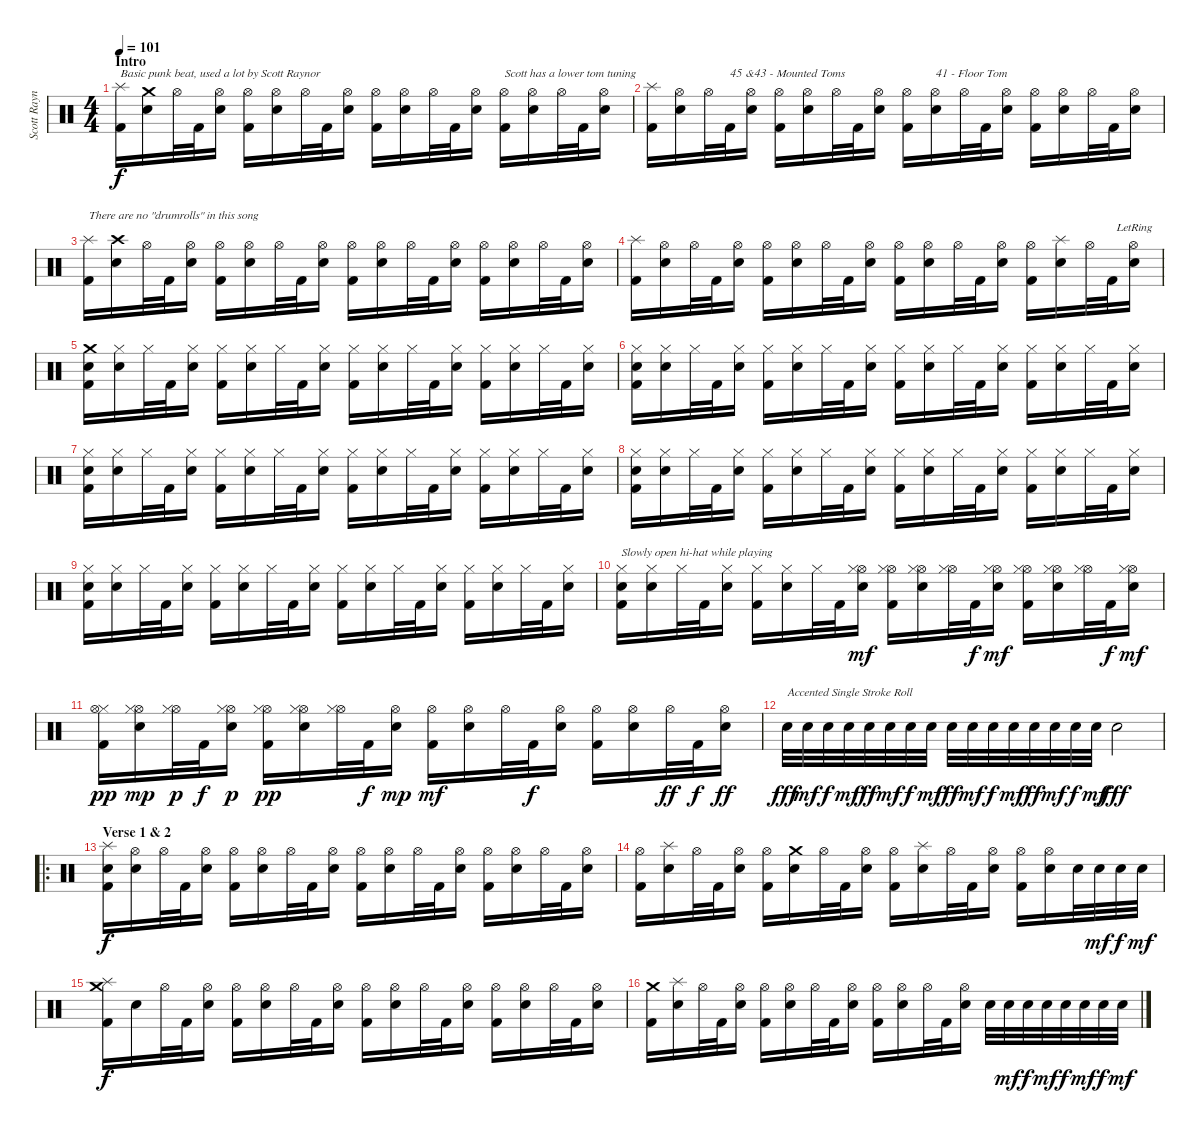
\track ("Scott Raynor" "Scott Rayn") {instrument percussion}
\staff {score}
\articulation defaults
\ts (4 4)
\section ("" "Intro")
\tempo 101
\clef neutral
\ks c
("Splash (hit)" "Kick (hit) 2").16{txt "Basic punk beat, used a lot by Scott Raynor" dy f} ("Crash medium (hit)" "Electric Snare (hit)").16 "Hi-Hat (open)".32 "Kick (hit) 2".32 ("Hi-Hat (open)" "Electric Snare (hit)").16 ("Hi-Hat (open)" "Kick (hit) 2").16 ("Hi-Hat (open)" "Electric Snare (hit)").16 "Hi-Hat (open)".32 "Kick (hit) 2".32 ("Hi-Hat (open)" "Electric Snare (hit)").16 ("Hi-Hat (open)" "Kick (hit) 2").16 ("Hi-Hat (open)" "Electric Snare (hit)").16 "Hi-Hat (open)".32 "Kick (hit) 2".32 ("Hi-Hat (open)" "Electric Snare (hit)").16 ("Hi-Hat (open)" "Kick (hit) 2").16{txt "Scott has a lower tom tuning"} ("Hi-Hat (open)" "Electric Snare (hit)").16 "Hi-Hat (open)".32 "Kick (hit) 2".32 ("Hi-Hat (open)" "Electric Snare (hit)").16 |
("Splash (hit)" "Kick (hit) 2").16 ("Hi-Hat (open)" "Electric Snare (hit)").16 "Hi-Hat (open)".32 "Kick (hit) 2".32{txt "45 &43 - Mounted Toms"} ("Hi-Hat (open)" "Electric Snare (hit)").16 ("Hi-Hat (open)" "Kick (hit) 2").16 ("Hi-Hat (open)" "Electric Snare (hit)").16 "Hi-Hat (open)".32 "Kick (hit) 2".32 ("Hi-Hat (open)" "Electric Snare (hit)").16 ("Hi-Hat (open)" "Kick (hit) 2").16 ("Hi-Hat (open)" "Electric Snare (hit)").16{txt "41 - Floor Tom"} "Hi-Hat (open)".32 "Kick (hit) 2".32 ("Hi-Hat (open)" "Electric Snare (hit)").16 ("Hi-Hat (open)" "Kick (hit) 2").16 ("Hi-Hat (open)" "Electric Snare (hit)").16 "Hi-Hat (open)".32 "Kick (hit) 2".32 ("Hi-Hat (open)" "Electric Snare (hit)").16 |
("Splash (hit)" "Kick (hit) 2").16{txt "There are no \"drumrolls\" in this song"} ("Crash high (hit)" "Electric Snare (hit)").16 "Hi-Hat (open)".32 "Kick (hit) 2".32 ("Hi-Hat (open)" "Electric Snare (hit)").16 ("Hi-Hat (open)" "Kick (hit) 2").16 ("Hi-Hat (open)" "Electric Snare (hit)").16 "Hi-Hat (open)".32 "Kick (hit) 2".32 ("Hi-Hat (open)" "Electric Snare (hit)").16 ("Hi-Hat (open)" "Kick (hit) 2").16 ("Hi-Hat (open)" "Electric Snare (hit)").16 "Hi-Hat (open)".32 "Kick (hit) 2".32 ("Hi-Hat (open)" "Electric Snare (hit)").16 ("Hi-Hat (open)" "Kick (hit) 2").16 ("Hi-Hat (open)" "Electric Snare (hit)").16 "Hi-Hat (open)".32 "Kick (hit) 2".32 ("Hi-Hat (open)" "Electric Snare (hit)").16 |
("Splash (hit)" "Kick (hit) 2").16 ("Hi-Hat (open)" "Electric Snare (hit)").16 "Hi-Hat (open)".32 "Kick (hit) 2".32 ("Hi-Hat (open)" "Electric Snare (hit)").16 ("Hi-Hat (open)" "Kick (hit) 2").16 ("Hi-Hat (open)" "Electric Snare (hit)").16 "Hi-Hat (open)".32 "Kick (hit) 2".32 ("Hi-Hat (open)" "Electric Snare (hit)").16 ("Hi-Hat (open)" "Kick (hit) 2").16 ("Hi-Hat (open)" "Electric Snare (hit)").16 "Hi-Hat (open)".32 "Kick (hit) 2".32 ("Hi-Hat (open)" "Electric Snare (hit)").16 ("Hi-Hat (open)" "Kick (hit) 2").16 ("Splash (hit)" "Electric Snare (hit)").16 "Hi-Hat (open)".32 "Kick (hit) 2".32 ("Hi-Hat (open)"{lr} "Electric Snare (hit)").16 |
("Crash medium (hit)" "Snare (hit)" "Kick (hit) 2").16 ("Hi-Hat (closed)" "Electric Snare (hit)").16 "Hi-Hat (closed)".32 "Kick (hit) 2".32 ("Hi-Hat (closed)" "Electric Snare (hit)").16 ("Hi-Hat (closed)" "Kick (hit) 2").16 ("Hi-Hat (closed)" "Electric Snare (hit)").16 "Hi-Hat (closed)".32 "Kick (hit) 2".32 ("Hi-Hat (closed)" "Electric Snare (hit)").16 ("Hi-Hat (closed)" "Kick (hit) 2").16 ("Hi-Hat (closed)" "Electric Snare (hit)").16 "Hi-Hat (closed)".32 "Kick (hit) 2".32 ("Hi-Hat (closed)" "Electric Snare (hit)").16 ("Hi-Hat (closed)" "Kick (hit) 2").16 ("Hi-Hat (closed)" "Electric Snare (hit)").16 "Hi-Hat (closed)".32 "Kick (hit) 2".32 ("Hi-Hat (closed)" "Electric Snare (hit)").16 |
("Hi-Hat (closed)" "Snare (hit)" "Kick (hit) 2").16 ("Hi-Hat (closed)" "Electric Snare (hit)").16 "Hi-Hat (closed)".32 "Kick (hit) 2".32 ("Hi-Hat (closed)" "Electric Snare (hit)").16 ("Hi-Hat (closed)" "Kick (hit) 2").16 ("Hi-Hat (closed)" "Electric Snare (hit)").16 "Hi-Hat (closed)".32 "Kick (hit) 2".32 ("Hi-Hat (closed)" "Electric Snare (hit)").16 ("Hi-Hat (closed)" "Kick (hit) 2").16 ("Hi-Hat (closed)" "Electric Snare (hit)").16 "Hi-Hat (closed)".32 "Kick (hit) 2".32 ("Hi-Hat (closed)" "Electric Snare (hit)").16 ("Hi-Hat (closed)" "Kick (hit) 2").16 ("Hi-Hat (closed)" "Electric Snare (hit)").16 "Hi-Hat (closed)".32 "Kick (hit) 2".32 ("Hi-Hat (closed)" "Electric Snare (hit)").16 |
("Hi-Hat (closed)" "Snare (hit)" "Kick (hit) 2").16 ("Hi-Hat (closed)" "Electric Snare (hit)").16 "Hi-Hat (closed)".32 "Kick (hit) 2".32 ("Hi-Hat (closed)" "Electric Snare (hit)").16 ("Hi-Hat (closed)" "Kick (hit) 2").16 ("Hi-Hat (closed)" "Electric Snare (hit)").16 "Hi-Hat (closed)".32 "Kick (hit) 2".32 ("Hi-Hat (closed)" "Electric Snare (hit)").16 ("Hi-Hat (closed)" "Kick (hit) 2").16 ("Hi-Hat (closed)" "Electric Snare (hit)").16 "Hi-Hat (closed)".32 "Kick (hit) 2".32 ("Hi-Hat (closed)" "Electric Snare (hit)").16 ("Hi-Hat (closed)" "Kick (hit) 2").16 ("Hi-Hat (closed)" "Electric Snare (hit)").16 "Hi-Hat (closed)".32 "Kick (hit) 2".32 ("Hi-Hat (closed)" "Electric Snare (hit)").16 |
("Hi-Hat (closed)" "Snare (hit)" "Kick (hit) 2").16 ("Hi-Hat (closed)" "Electric Snare (hit)").16 "Hi-Hat (closed)".32 "Kick (hit) 2".32 ("Hi-Hat (closed)" "Electric Snare (hit)").16 ("Hi-Hat (closed)" "Kick (hit) 2").16 ("Hi-Hat (closed)" "Electric Snare (hit)").16 "Hi-Hat (closed)".32 "Kick (hit) 2".32 ("Hi-Hat (closed)" "Electric Snare (hit)").16 ("Hi-Hat (closed)" "Kick (hit) 2").16 ("Hi-Hat (closed)" "Electric Snare (hit)").16 "Hi-Hat (closed)".32 "Kick (hit) 2".32 ("Hi-Hat (closed)" "Electric Snare (hit)").16 ("Hi-Hat (closed)" "Kick (hit) 2").16 ("Hi-Hat (closed)" "Electric Snare (hit)").16 "Hi-Hat (closed)".32 "Kick (hit) 2".32 ("Hi-Hat (closed)" "Electric Snare (hit)").16 |
("Hi-Hat (closed)" "Snare (hit)" "Kick (hit) 2").16 ("Hi-Hat (closed)" "Electric Snare (hit)").16 "Hi-Hat (closed)".32 "Kick (hit) 2".32 ("Hi-Hat (closed)" "Electric Snare (hit)").16 ("Hi-Hat (closed)" "Kick (hit) 2").16 ("Hi-Hat (closed)" "Electric Snare (hit)").16 "Hi-Hat (closed)".32 "Kick (hit) 2".32 ("Hi-Hat (closed)" "Electric Snare (hit)").16 ("Hi-Hat (closed)" "Kick (hit) 2").16 ("Hi-Hat (closed)" "Electric Snare (hit)").16 "Hi-Hat (closed)".32 "Kick (hit) 2".32 ("Hi-Hat (closed)" "Electric Snare (hit)").16 ("Hi-Hat (closed)" "Kick (hit) 2").16 ("Hi-Hat (closed)" "Electric Snare (hit)").16 "Hi-Hat (closed)".32 "Kick (hit) 2".32 ("Hi-Hat (closed)" "Electric Snare (hit)").16 |
("Hi-Hat (closed)" "Snare (hit)" "Kick (hit) 2").16{txt "Slowly open hi-hat while playing"} ("Hi-Hat (closed)" "Electric Snare (hit)").16 "Hi-Hat (closed)".32 "Kick (hit) 2".32 ("Hi-Hat (closed)" "Electric Snare (hit)").16 ("Hi-Hat (closed)" "Kick (hit) 2").16 ("Hi-Hat (closed)" "Electric Snare (hit)").16 "Hi-Hat (closed)".32 "Kick (hit) 2".32 ("Hi-Hat (open)" "Hi-Hat (closed)" "Electric Snare (hit)").16{dy mf} ("Hi-Hat (open)" "Hi-Hat (closed)" "Kick (hit) 2").16 ("Hi-Hat (open)" "Hi-Hat (closed)" "Electric Snare (hit)").16 ("Hi-Hat (open)" "Hi-Hat (closed)").32 "Kick (hit) 2".32{dy f} ("Hi-Hat (open)" "Hi-Hat (closed)" "Electric Snare (hit)").16{dy mf} ("Hi-Hat (open)" "Hi-Hat (closed)" "Kick (hit) 2").16 ("Hi-Hat (open)" "Hi-Hat (closed)" "Electric Snare (hit)").16 ("Hi-Hat (open)" "Hi-Hat (closed)").32 "Kick (hit) 2".32{dy f} ("Hi-Hat (open)" "Hi-Hat (closed)" "Electric Snare (hit)").16{dy mf} |
("Hi-Hat (closed)" "Hi-Hat (open)" "Kick (hit) 2").16{dy pp} ("Hi-Hat (open)" "Hi-Hat (closed)" "Electric Snare (hit)").16{dy mp} ("Hi-Hat (open)" "Hi-Hat (closed)").32{dy p} "Kick (hit) 2".32{dy f} ("Hi-Hat (open)" "Hi-Hat (closed)" "Electric Snare (hit)").16{dy p} ("Hi-Hat (open)" "Hi-Hat (closed)" "Kick (hit) 2").16{dy pp} ("Hi-Hat (open)" "Hi-Hat (closed)" "Electric Snare (hit)").16 ("Hi-Hat (open)" "Hi-Hat (closed)").32 "Kick (hit) 2".32{dy f} ("Hi-Hat (open)" "Electric Snare (hit)").16{dy mp} ("Hi-Hat (open)" "Kick (hit) 2").16{dy mf} ("Hi-Hat (open)" "Electric Snare (hit)").16 "Hi-Hat (open)".32 "Kick (hit) 2".32{dy f} ("Hi-Hat (open)" "Electric Snare (hit)").16 ("Hi-Hat (open)" "Kick (hit) 2").16 ("Hi-Hat (open)" "Electric Snare (hit)").16 "Hi-Hat (open)".32{dy ff} "Kick (hit) 2".32{dy f} ("Hi-Hat (open)" "Electric Snare (hit)").16{dy ff} |
"Electric Snare (hit)".32{txt "Accented Single Stroke Roll" dy fff} "Electric Snare (hit)".32{dy mf} "Electric Snare (hit)".32{dy f} "Electric Snare (hit)".32{dy mf} "Electric Snare (hit)".32{dy ff} "Electric Snare (hit)".32{dy mf} "Electric Snare (hit)".32{dy f} "Electric Snare (hit)".32{dy mf} "Electric Snare (hit)".32{dy ff} "Electric Snare (hit)".32{dy mf} "Electric Snare (hit)".32{dy f} "Electric Snare (hit)".32{dy mf} "Electric Snare (hit)".32{dy ff} "Electric Snare (hit)".32{dy mf} "Electric Snare (hit)".32{dy f} "Electric Snare (hit)".32{dy mf} "Electric Snare (hit)".2{dy fff} |
\ro
\section ("" "Verse 1 & 2")
("Splash (hit)" "Snare (hit)" "Kick (hit) 2").16{dy f} ("Hi-Hat (open)" "Electric Snare (hit)").16 "Hi-Hat (open)".32 "Kick (hit) 2".32 ("Hi-Hat (open)" "Electric Snare (hit)").16 ("Hi-Hat (open)" "Kick (hit) 2").16 ("Hi-Hat (open)" "Electric Snare (hit)").16 "Hi-Hat (open)".32 "Kick (hit) 2".32 ("Hi-Hat (open)" "Electric Snare (hit)").16 ("Hi-Hat (open)" "Kick (hit) 2").16 ("Hi-Hat (open)" "Electric Snare (hit)").16 "Hi-Hat (open)".32 "Kick (hit) 2".32 ("Hi-Hat (open)" "Electric Snare (hit)").16 ("Hi-Hat (open)" "Kick (hit) 2").16 ("Hi-Hat (open)" "Electric Snare (hit)").16 "Hi-Hat (open)".32 "Kick (hit) 2".32 ("Hi-Hat (open)" "Electric Snare (hit)").16 |
("Hi-Hat (open)" "Kick (hit) 2").16 ("Splash (hit)" "Electric Snare (hit)").16 "Hi-Hat (open)".32 "Kick (hit) 2".32 ("Hi-Hat (open)" "Electric Snare (hit)").16 ("Hi-Hat (open)" "Kick (hit) 2").16 ("Crash medium (hit)" "Electric Snare (hit)").16 "Hi-Hat (open)".32 "Kick (hit) 2".32 ("Hi-Hat (open)" "Electric Snare (hit)").16 ("Hi-Hat (open)" "Kick (hit) 2").16 ("Splash (hit)" "Electric Snare (hit)").16 "Hi-Hat (open)".32 "Kick (hit) 2".32 ("Hi-Hat (open)" "Electric Snare (hit)").16 ("Hi-Hat (open)" "Kick (hit) 2").16 ("Hi-Hat (open)" "Electric Snare (hit)").16 "Electric Snare (hit)".32 "Electric Snare (hit)".32{dy mf} "Electric Snare (hit)".32{dy f} "Electric Snare (hit)".32{dy mf} |
("Splash (hit)" "Crash medium (hit)" "Kick (hit) 2").16{dy f} "Electric Snare (hit)".16 "Hi-Hat (open)".32 "Kick (hit) 2".32 ("Hi-Hat (open)" "Electric Snare (hit)").16 ("Hi-Hat (open)" "Kick (hit) 2").16 ("Hi-Hat (open)" "Electric Snare (hit)").16 "Hi-Hat (open)".32 "Kick (hit) 2".32 ("Hi-Hat (open)" "Electric Snare (hit)").16 ("Hi-Hat (open)" "Kick (hit) 2").16 ("Hi-Hat (open)" "Electric Snare (hit)").16 "Hi-Hat (open)".32 "Kick (hit) 2".32 ("Hi-Hat (open)" "Electric Snare (hit)").16 ("Hi-Hat (open)" "Kick (hit) 2").16 ("Hi-Hat (open)" "Electric Snare (hit)").16 "Hi-Hat (open)".32 "Kick (hit) 2".32 ("Hi-Hat (open)" "Electric Snare (hit)").16 |
("Crash medium (hit)" "Kick (hit) 2").16 ("Splash (hit)" "Electric Snare (hit)").16 "Hi-Hat (open)".32 "Kick (hit) 2".32 ("Hi-Hat (open)" "Electric Snare (hit)").16 ("Hi-Hat (open)" "Kick (hit) 2").16 ("Hi-Hat (open)" "Electric Snare (hit)").16 "Hi-Hat (open)".32 "Kick (hit) 2".32 ("Hi-Hat (open)" "Electric Snare (hit)").16 ("Hi-Hat (open)" "Kick (hit) 2").16 ("Hi-Hat (open)" "Electric Snare (hit)").16 "Hi-Hat (open)".32 "Kick (hit) 2".32 ("Hi-Hat (open)" "Electric Snare (hit)").16 "Electric Snare (hit)".32 "Electric Snare (hit)".32{dy mf} "Electric Snare (hit)".32{dy f} "Electric Snare (hit)".32{dy mf} "Electric Snare (hit)".32{dy f} "Electric Snare (hit)".32{dy mf} "Electric Snare (hit)".32{dy f} "Electric Snare (hit)".32{dy mf}
